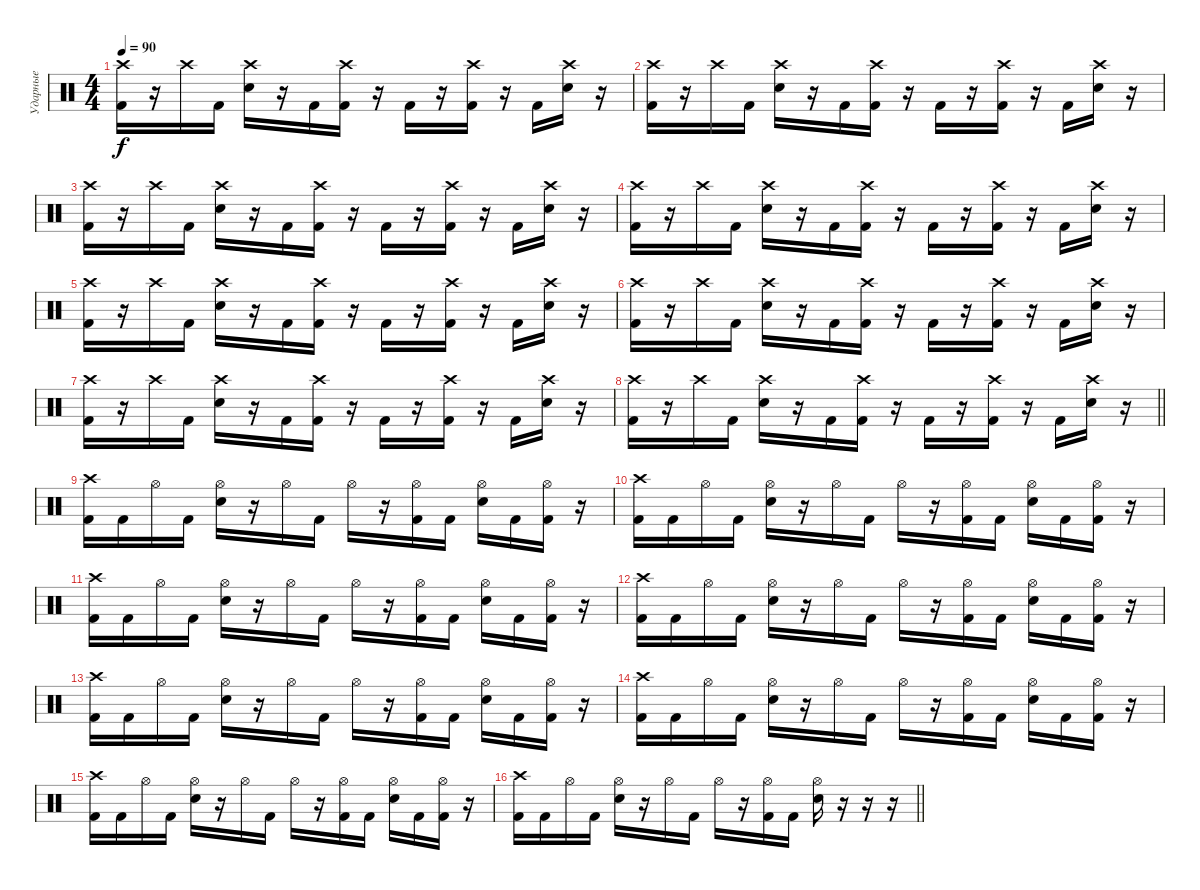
\track ("Ударные" "Ударные") {instrument percussion}
\staff {score}
\articulation defaults
\ts (4 4)
\section ("" "")
\tempo 90
\clef neutral
\ks c
("Crash high (hit)" "Kick (hit) 2").16{dy f} r.16 "Crash high (hit)".16 "Kick (hit) 2".16 ("Crash high (hit)" "Electric Snare (hit)").16 r.16 "Kick (hit) 2".16 ("Crash high (hit)" "Kick (hit) 2").16 r.16 "Kick (hit) 2".16 r.16 ("Crash high (hit)" "Kick (hit) 2").16 r.16 "Kick (hit) 2".16 ("Crash high (hit)" "Electric Snare (hit)").16 r.16 |
("Crash high (hit)" "Kick (hit) 2").16 r.16 "Crash high (hit)".16 "Kick (hit) 2".16 ("Crash high (hit)" "Electric Snare (hit)").16 r.16 "Kick (hit) 2".16 ("Crash high (hit)" "Kick (hit) 2").16 r.16 "Kick (hit) 2".16 r.16 ("Crash high (hit)" "Kick (hit) 2").16 r.16 "Kick (hit) 2".16 ("Crash high (hit)" "Electric Snare (hit)").16 r.16 |
("Crash high (hit)" "Kick (hit) 2").16 r.16 "Crash high (hit)".16 "Kick (hit) 2".16 ("Crash high (hit)" "Electric Snare (hit)").16 r.16 "Kick (hit) 2".16 ("Crash high (hit)" "Kick (hit) 2").16 r.16 "Kick (hit) 2".16 r.16 ("Crash high (hit)" "Kick (hit) 2").16 r.16 "Kick (hit) 2".16 ("Crash high (hit)" "Electric Snare (hit)").16 r.16 |
("Crash high (hit)" "Kick (hit) 2").16 r.16 "Crash high (hit)".16 "Kick (hit) 2".16 ("Crash high (hit)" "Electric Snare (hit)").16 r.16 "Kick (hit) 2".16 ("Crash high (hit)" "Kick (hit) 2").16 r.16 "Kick (hit) 2".16 r.16 ("Crash high (hit)" "Kick (hit) 2").16 r.16 "Kick (hit) 2".16 ("Crash high (hit)" "Electric Snare (hit)").16 r.16 |
("Crash high (hit)" "Kick (hit) 2").16 r.16 "Crash high (hit)".16 "Kick (hit) 2".16 ("Crash high (hit)" "Electric Snare (hit)").16 r.16 "Kick (hit) 2".16 ("Crash high (hit)" "Kick (hit) 2").16 r.16 "Kick (hit) 2".16 r.16 ("Crash high (hit)" "Kick (hit) 2").16 r.16 "Kick (hit) 2".16 ("Crash high (hit)" "Electric Snare (hit)").16 r.16 |
("Crash high (hit)" "Kick (hit) 2").16 r.16 "Crash high (hit)".16 "Kick (hit) 2".16 ("Crash high (hit)" "Electric Snare (hit)").16 r.16 "Kick (hit) 2".16 ("Crash high (hit)" "Kick (hit) 2").16 r.16 "Kick (hit) 2".16 r.16 ("Crash high (hit)" "Kick (hit) 2").16 r.16 "Kick (hit) 2".16 ("Crash high (hit)" "Electric Snare (hit)").16 r.16 |
("Crash high (hit)" "Kick (hit) 2").16 r.16 "Crash high (hit)".16 "Kick (hit) 2".16 ("Crash high (hit)" "Electric Snare (hit)").16 r.16 "Kick (hit) 2".16 ("Crash high (hit)" "Kick (hit) 2").16 r.16 "Kick (hit) 2".16 r.16 ("Crash high (hit)" "Kick (hit) 2").16 r.16 "Kick (hit) 2".16 ("Crash high (hit)" "Electric Snare (hit)").16 r.16 |
\barLineRight lightlight
("Crash high (hit)" "Kick (hit) 2").16 r.16 "Crash high (hit)".16 "Kick (hit) 2".16 ("Crash high (hit)" "Electric Snare (hit)").16 r.16 "Kick (hit) 2".16 ("Crash high (hit)" "Kick (hit) 2").16 r.16 "Kick (hit) 2".16 r.16 ("Crash high (hit)" "Kick (hit) 2").16 r.16 "Kick (hit) 2".16 ("Crash high (hit)" "Electric Snare (hit)").16 r.16 |
\section ("" "")
("Crash high (hit)" "Kick (hit) 2").16 "Kick (hit) 2".16 "Hi-Hat (open)".16 "Kick (hit) 2".16 ("Hi-Hat (open)" "Electric Snare (hit)").16 r.16 "Hi-Hat (open)".16 "Kick (hit) 2".16 "Hi-Hat (open)".16 r.16 ("Hi-Hat (open)" "Kick (hit) 2").16 "Kick (hit) 2".16 ("Hi-Hat (open)" "Electric Snare (hit)").16 "Kick (hit) 2".16 ("Hi-Hat (open)" "Kick (hit) 2").16 r.16 |
("Crash high (hit)" "Kick (hit) 2").16 "Kick (hit) 2".16 "Hi-Hat (open)".16 "Kick (hit) 2".16 ("Hi-Hat (open)" "Electric Snare (hit)").16 r.16 "Hi-Hat (open)".16 "Kick (hit) 2".16 "Hi-Hat (open)".16 r.16 ("Hi-Hat (open)" "Kick (hit) 2").16 "Kick (hit) 2".16 ("Hi-Hat (open)" "Electric Snare (hit)").16 "Kick (hit) 2".16 ("Hi-Hat (open)" "Kick (hit) 2").16 r.16 |
("Crash high (hit)" "Kick (hit) 2").16 "Kick (hit) 2".16 "Hi-Hat (open)".16 "Kick (hit) 2".16 ("Hi-Hat (open)" "Electric Snare (hit)").16 r.16 "Hi-Hat (open)".16 "Kick (hit) 2".16 "Hi-Hat (open)".16 r.16 ("Hi-Hat (open)" "Kick (hit) 2").16 "Kick (hit) 2".16 ("Hi-Hat (open)" "Electric Snare (hit)").16 "Kick (hit) 2".16 ("Hi-Hat (open)" "Kick (hit) 2").16 r.16 |
("Crash high (hit)" "Kick (hit) 2").16 "Kick (hit) 2".16 "Hi-Hat (open)".16 "Kick (hit) 2".16 ("Hi-Hat (open)" "Electric Snare (hit)").16 r.16 "Hi-Hat (open)".16 "Kick (hit) 2".16 "Hi-Hat (open)".16 r.16 ("Hi-Hat (open)" "Kick (hit) 2").16 "Kick (hit) 2".16 ("Hi-Hat (open)" "Electric Snare (hit)").16 "Kick (hit) 2".16 ("Hi-Hat (open)" "Kick (hit) 2").16 r.16 |
("Crash high (hit)" "Kick (hit) 2").16 "Kick (hit) 2".16 "Hi-Hat (open)".16 "Kick (hit) 2".16 ("Hi-Hat (open)" "Electric Snare (hit)").16 r.16 "Hi-Hat (open)".16 "Kick (hit) 2".16 "Hi-Hat (open)".16 r.16 ("Hi-Hat (open)" "Kick (hit) 2").16 "Kick (hit) 2".16 ("Hi-Hat (open)" "Electric Snare (hit)").16 "Kick (hit) 2".16 ("Hi-Hat (open)" "Kick (hit) 2").16 r.16 |
("Crash high (hit)" "Kick (hit) 2").16 "Kick (hit) 2".16 "Hi-Hat (open)".16 "Kick (hit) 2".16 ("Hi-Hat (open)" "Electric Snare (hit)").16 r.16 "Hi-Hat (open)".16 "Kick (hit) 2".16 "Hi-Hat (open)".16 r.16 ("Hi-Hat (open)" "Kick (hit) 2").16 "Kick (hit) 2".16 ("Hi-Hat (open)" "Electric Snare (hit)").16 "Kick (hit) 2".16 ("Hi-Hat (open)" "Kick (hit) 2").16 r.16 |
("Crash high (hit)" "Kick (hit) 2").16 "Kick (hit) 2".16 "Hi-Hat (open)".16 "Kick (hit) 2".16 ("Hi-Hat (open)" "Electric Snare (hit)").16 r.16 "Hi-Hat (open)".16 "Kick (hit) 2".16 "Hi-Hat (open)".16 r.16 ("Hi-Hat (open)" "Kick (hit) 2").16 "Kick (hit) 2".16 ("Hi-Hat (open)" "Electric Snare (hit)").16 "Kick (hit) 2".16 ("Hi-Hat (open)" "Kick (hit) 2").16 r.16 |
\barLineRight lightlight
("Crash high (hit)" "Kick (hit) 2").16 "Kick (hit) 2".16 "Hi-Hat (open)".16 "Kick (hit) 2".16 ("Hi-Hat (open)" "Electric Snare (hit)").16 r.16 "Hi-Hat (open)".16 "Kick (hit) 2".16 "Hi-Hat (open)".16 r.16 ("Hi-Hat (open)" "Kick (hit) 2").16 "Kick (hit) 2".16 ("Hi-Hat (open)" "Electric Snare (hit)").16 r.16 r.16 r.16
